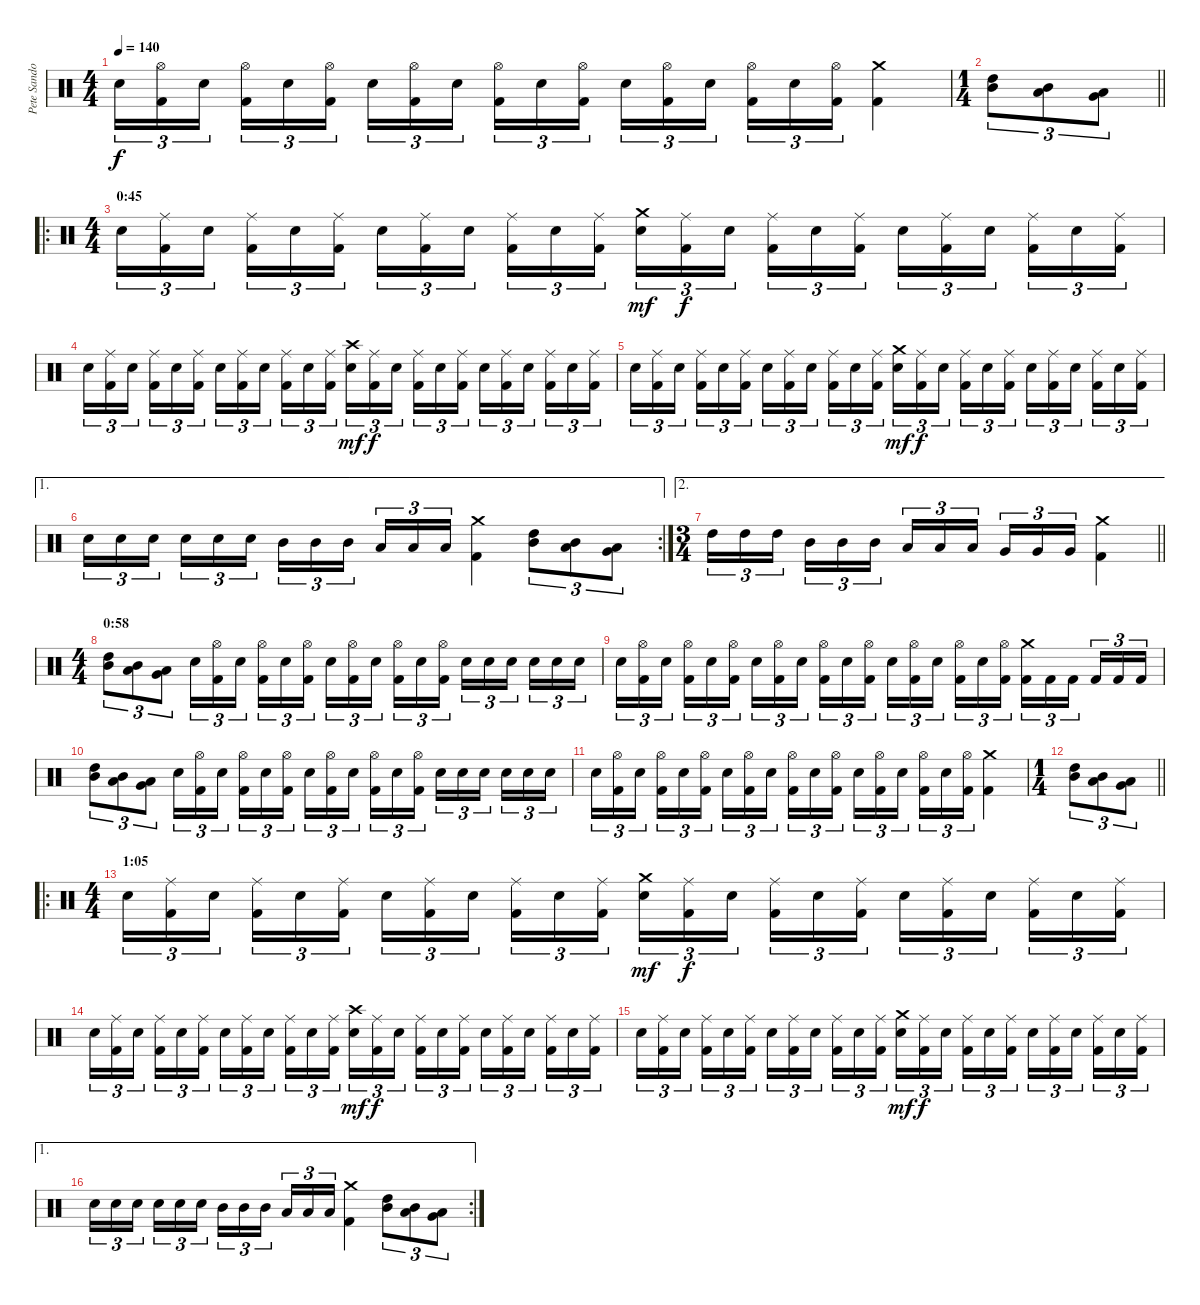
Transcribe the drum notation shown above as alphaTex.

\track ("Pete Sandoval" "Pete Sando") {instrument percussion}
\staff {score}
\articulation defaults
\ts (4 4)
\tempo 140
\clef neutral
\ks c "Electric Snare (hit)".16{tu (3 2) dy f}
("Hi-Hat (open)" "Kick (hit) 2").16{tu (3 2)} "Electric Snare (hit)".16{tu (3 2) beam splitsecondary} ("Hi-Hat (open)" "Kick (hit) 2").16{tu (3 2)} "Electric Snare (hit)".16{tu (3 2)} ("Hi-Hat (open)" "Kick (hit) 2").16{tu (3 2)} "Electric Snare (hit)".16{tu (3 2)} ("Hi-Hat (open)" "Kick (hit) 2").16{tu (3 2)} "Electric Snare (hit)".16{tu (3 2) beam splitsecondary} ("Hi-Hat (open)" "Kick (hit) 2").16{tu (3 2)} "Electric Snare (hit)".16{tu (3 2)} ("Hi-Hat (open)" "Kick (hit) 2").16{tu (3 2)} "Electric Snare (hit)".16{tu (3 2)} ("Hi-Hat (open)" "Kick (hit) 2").16{tu (3 2)} "Electric Snare (hit)".16{tu (3 2) beam splitsecondary} ("Hi-Hat (open)" "Kick (hit) 2").16{tu (3 2)} "Electric Snare (hit)".16{tu (3 2)} ("Hi-Hat (open)" "Kick (hit) 2").16{tu (3 2)} ("Crash medium (hit)" "Kick (hit) 2").4 |
\ts (1 4)
\barLineRight lightlight
("High Tom (hit)" "Mid Tom (hit)").8{tu (3 2)} ("Mid Tom (hit)" "Low Tom (hit)").8{tu (3 2)} ("Low Tom (hit)" "Very Low Tom (hit)").8{tu (3 2)} |
\ro
\ts (4 4)
\section ("" "0:45")
"Electric Snare (hit)".16{tu (3 2)} ("Ride (middle)" "Kick (hit) 2").16{tu (3 2)} "Electric Snare (hit)".16{tu (3 2) beam splitsecondary} ("Ride (middle)" "Kick (hit) 2").16{tu (3 2)} "Electric Snare (hit)".16{tu (3 2)} ("Ride (middle)" "Kick (hit) 2").16{tu (3 2)} "Electric Snare (hit)".16{tu (3 2)} ("Ride (middle)" "Kick (hit) 2").16{tu (3 2)} "Electric Snare (hit)".16{tu (3 2) beam splitsecondary} ("Ride (middle)" "Kick (hit) 2").16{tu (3 2)} "Electric Snare (hit)".16{tu (3 2)} ("Ride (middle)" "Kick (hit) 2").16{tu (3 2)} ("Crash medium (hit)" "Electric Snare (hit)").16{tu (3 2) dy mf} ("Ride (middle)" "Kick (hit) 2").16{tu (3 2) dy f} "Electric Snare (hit)".16{tu (3 2) beam splitsecondary} ("Ride (middle)" "Kick (hit) 2").16{tu (3 2)} "Electric Snare (hit)".16{tu (3 2)} ("Ride (middle)" "Kick (hit) 2").16{tu (3 2)} "Electric Snare (hit)".16{tu (3 2)} ("Ride (middle)" "Kick (hit) 2").16{tu (3 2)} "Electric Snare (hit)".16{tu (3 2) beam splitsecondary} ("Ride (middle)" "Kick (hit) 2").16{tu (3 2)} "Electric Snare (hit)".16{tu (3 2)} ("Ride (middle)" "Kick (hit) 2").16{tu (3 2)} |
"Electric Snare (hit)".16{tu (3 2)} ("Ride (middle)" "Kick (hit) 2").16{tu (3 2)} "Electric Snare (hit)".16{tu (3 2) beam splitsecondary} ("Ride (middle)" "Kick (hit) 2").16{tu (3 2)} "Electric Snare (hit)".16{tu (3 2)} ("Ride (middle)" "Kick (hit) 2").16{tu (3 2)} "Electric Snare (hit)".16{tu (3 2)} ("Ride (middle)" "Kick (hit) 2").16{tu (3 2)} "Electric Snare (hit)".16{tu (3 2) beam splitsecondary} ("Ride (middle)" "Kick (hit) 2").16{tu (3 2)} "Electric Snare (hit)".16{tu (3 2)} ("Ride (middle)" "Kick (hit) 2").16{tu (3 2)} ("Crash high (hit)" "Electric Snare (hit)").16{tu (3 2) dy mf} ("Ride (middle)" "Kick (hit) 2").16{tu (3 2) dy f} "Electric Snare (hit)".16{tu (3 2) beam splitsecondary} ("Ride (middle)" "Kick (hit) 2").16{tu (3 2)} "Electric Snare (hit)".16{tu (3 2)} ("Ride (middle)" "Kick (hit) 2").16{tu (3 2)} "Electric Snare (hit)".16{tu (3 2)} ("Ride (middle)" "Kick (hit) 2").16{tu (3 2)} "Electric Snare (hit)".16{tu (3 2) beam splitsecondary} ("Ride (middle)" "Kick (hit) 2").16{tu (3 2)} "Electric Snare (hit)".16{tu (3 2)} ("Ride (middle)" "Kick (hit) 2").16{tu (3 2)} |
"Electric Snare (hit)".16{tu (3 2)} ("Ride (middle)" "Kick (hit) 2").16{tu (3 2)} "Electric Snare (hit)".16{tu (3 2) beam splitsecondary} ("Ride (middle)" "Kick (hit) 2").16{tu (3 2)} "Electric Snare (hit)".16{tu (3 2)} ("Ride (middle)" "Kick (hit) 2").16{tu (3 2)} "Electric Snare (hit)".16{tu (3 2)} ("Ride (middle)" "Kick (hit) 2").16{tu (3 2)} "Electric Snare (hit)".16{tu (3 2) beam splitsecondary} ("Ride (middle)" "Kick (hit) 2").16{tu (3 2)} "Electric Snare (hit)".16{tu (3 2)} ("Ride (middle)" "Kick (hit) 2").16{tu (3 2)} ("Crash medium (hit)" "Electric Snare (hit)").16{tu (3 2) dy mf} ("Ride (middle)" "Kick (hit) 2").16{tu (3 2) dy f} "Electric Snare (hit)".16{tu (3 2) beam splitsecondary} ("Ride (middle)" "Kick (hit) 2").16{tu (3 2)} "Electric Snare (hit)".16{tu (3 2)} ("Ride (middle)" "Kick (hit) 2").16{tu (3 2)} "Electric Snare (hit)".16{tu (3 2)} ("Ride (middle)" "Kick (hit) 2").16{tu (3 2)} "Electric Snare (hit)".16{tu (3 2) beam splitsecondary} ("Ride (middle)" "Kick (hit) 2").16{tu (3 2)} "Electric Snare (hit)".16{tu (3 2)} ("Ride (middle)" "Kick (hit) 2").16{tu (3 2)} |
\ae 1
\rc 2 "Electric Snare (hit)".16{tu (3 2)} "Electric Snare (hit)".16{tu (3 2)} "Electric Snare (hit)".16{tu (3 2) beam splitsecondary} "Electric Snare (hit)".16{tu (3 2)} "Electric Snare (hit)".16{tu (3 2)} "Electric Snare (hit)".16{tu (3 2)} "Mid Tom (hit)".16{tu (3 2)} "Mid Tom (hit)".16{tu (3 2)} "Mid Tom (hit)".16{tu (3 2) beam splitsecondary} "Low Tom (hit)".16{tu (3 2)} "Low Tom (hit)".16{tu (3 2)} "Low Tom (hit)".16{tu (3 2)}
("Crash medium (hit)" "Kick (hit) 2").4 ("High Tom (hit)" "Mid Tom (hit)").8{tu (3 2)} ("Mid Tom (hit)" "Low Tom (hit)").8{tu (3 2)} ("Low Tom (hit)" "Very Low Tom (hit)").8{tu (3 2)} |
\ae 2
\ts (3 4)
\barLineRight lightlight "High Tom (hit)".16{tu (3 2)} "High Tom (hit)".16{tu (3 2)} "High Tom (hit)".16{tu (3 2) beam splitsecondary} "Mid Tom (hit)".16{tu (3 2)} "Mid Tom (hit)".16{tu (3 2)} "Mid Tom (hit)".16{tu (3 2)} "Low Tom (hit)".16{tu (3 2)} "Low Tom (hit)".16{tu (3 2)} "Low Tom (hit)".16{tu (3 2) beam splitsecondary} "Very Low Tom (hit)".16{tu (3 2)} "Very Low Tom (hit)".16{tu (3 2)} "Very Low Tom (hit)".16{tu (3 2)}
("Crash medium (hit)" "Kick (hit) 2").4 |
\ts (4 4)
\section ("" "0:58")
("High Tom (hit)" "Mid Tom (hit)").8{tu (3 2)} ("Mid Tom (hit)" "Low Tom (hit)").8{tu (3 2)} ("Low Tom (hit)" "Very Low Tom (hit)").8{tu (3 2)} "Electric Snare (hit)".16{tu (3 2)} ("Hi-Hat (open)" "Kick (hit) 2").16{tu (3 2)} "Electric Snare (hit)".16{tu (3 2) beam splitsecondary} ("Hi-Hat (open)" "Kick (hit) 2").16{tu (3 2)} "Electric Snare (hit)".16{tu (3 2)} ("Hi-Hat (open)" "Kick (hit) 2").16{tu (3 2)} "Electric Snare (hit)".16{tu (3 2)} ("Hi-Hat (open)" "Kick (hit) 2").16{tu (3 2)} "Electric Snare (hit)".16{tu (3 2) beam splitsecondary} ("Hi-Hat (open)" "Kick (hit) 2").16{tu (3 2)} "Electric Snare (hit)".16{tu (3 2)} ("Hi-Hat (open)" "Kick (hit) 2").16{tu (3 2)} "Electric Snare (hit)".16{tu (3 2)} "Electric Snare (hit)".16{tu (3 2)} "Electric Snare (hit)".16{tu (3 2) beam splitsecondary} "Electric Snare (hit)".16{tu (3 2)} "Electric Snare (hit)".16{tu (3 2)} "Electric Snare (hit)".16{tu (3 2)} |
"Electric Snare (hit)".16{tu (3 2)} ("Hi-Hat (open)" "Kick (hit) 2").16{tu (3 2)} "Electric Snare (hit)".16{tu (3 2) beam splitsecondary} ("Hi-Hat (open)" "Kick (hit) 2").16{tu (3 2)} "Electric Snare (hit)".16{tu (3 2)} ("Hi-Hat (open)" "Kick (hit) 2").16{tu (3 2)} "Electric Snare (hit)".16{tu (3 2)} ("Hi-Hat (open)" "Kick (hit) 2").16{tu (3 2)} "Electric Snare (hit)".16{tu (3 2) beam splitsecondary} ("Hi-Hat (open)" "Kick (hit) 2").16{tu (3 2)} "Electric Snare (hit)".16{tu (3 2)} ("Hi-Hat (open)" "Kick (hit) 2").16{tu (3 2)} "Electric Snare (hit)".16{tu (3 2)} ("Hi-Hat (open)" "Kick (hit) 2").16{tu (3 2)} "Electric Snare (hit)".16{tu (3 2) beam splitsecondary} ("Hi-Hat (open)" "Kick (hit) 2").16{tu (3 2)} "Electric Snare (hit)".16{tu (3 2)} ("Hi-Hat (open)" "Kick (hit) 2").16{tu (3 2)} ("Crash medium (hit)" "Kick (hit) 2").16{tu (3 2)} "Kick (hit) 2".16{tu (3 2)} "Kick (hit) 2".16{tu (3 2) beam splitsecondary} "Kick (hit) 2".16{tu (3 2)} "Kick (hit) 2".16{tu (3 2)} "Kick (hit) 2".16{tu (3 2)} |
("High Tom (hit)" "Mid Tom (hit)").8{tu (3 2)} ("Mid Tom (hit)" "Low Tom (hit)").8{tu (3 2)} ("Low Tom (hit)" "Very Low Tom (hit)").8{tu (3 2)} "Electric Snare (hit)".16{tu (3 2)} ("Hi-Hat (open)" "Kick (hit) 2").16{tu (3 2)} "Electric Snare (hit)".16{tu (3 2) beam splitsecondary} ("Hi-Hat (open)" "Kick (hit) 2").16{tu (3 2)} "Electric Snare (hit)".16{tu (3 2)} ("Hi-Hat (open)" "Kick (hit) 2").16{tu (3 2)} "Electric Snare (hit)".16{tu (3 2)} ("Hi-Hat (open)" "Kick (hit) 2").16{tu (3 2)} "Electric Snare (hit)".16{tu (3 2) beam splitsecondary} ("Hi-Hat (open)" "Kick (hit) 2").16{tu (3 2)} "Electric Snare (hit)".16{tu (3 2)} ("Hi-Hat (open)" "Kick (hit) 2").16{tu (3 2)} "Electric Snare (hit)".16{tu (3 2)} "Electric Snare (hit)".16{tu (3 2)} "Electric Snare (hit)".16{tu (3 2) beam splitsecondary} "Electric Snare (hit)".16{tu (3 2)} "Electric Snare (hit)".16{tu (3 2)} "Electric Snare (hit)".16{tu (3 2)} |
"Electric Snare (hit)".16{tu (3 2)} ("Hi-Hat (open)" "Kick (hit) 2").16{tu (3 2)} "Electric Snare (hit)".16{tu (3 2) beam splitsecondary} ("Hi-Hat (open)" "Kick (hit) 2").16{tu (3 2)} "Electric Snare (hit)".16{tu (3 2)} ("Hi-Hat (open)" "Kick (hit) 2").16{tu (3 2)} "Electric Snare (hit)".16{tu (3 2)} ("Hi-Hat (open)" "Kick (hit) 2").16{tu (3 2)} "Electric Snare (hit)".16{tu (3 2) beam splitsecondary} ("Hi-Hat (open)" "Kick (hit) 2").16{tu (3 2)} "Electric Snare (hit)".16{tu (3 2)} ("Hi-Hat (open)" "Kick (hit) 2").16{tu (3 2)} "Electric Snare (hit)".16{tu (3 2)} ("Hi-Hat (open)" "Kick (hit) 2").16{tu (3 2)} "Electric Snare (hit)".16{tu (3 2) beam splitsecondary} ("Hi-Hat (open)" "Kick (hit) 2").16{tu (3 2)} "Electric Snare (hit)".16{tu (3 2)} ("Hi-Hat (open)" "Kick (hit) 2").16{tu (3 2)} ("Crash medium (hit)" "Kick (hit) 2").4 |
\ts (1 4)
\barLineRight lightlight
("High Tom (hit)" "Mid Tom (hit)").8{tu (3 2)} ("Mid Tom (hit)" "Low Tom (hit)").8{tu (3 2)} ("Low Tom (hit)" "Very Low Tom (hit)").8{tu (3 2)} |
\ro
\ts (4 4)
\section ("" "1:05")
"Electric Snare (hit)".16{tu (3 2)} ("Ride (middle)" "Kick (hit) 2").16{tu (3 2)} "Electric Snare (hit)".16{tu (3 2) beam splitsecondary} ("Ride (middle)" "Kick (hit) 2").16{tu (3 2)} "Electric Snare (hit)".16{tu (3 2)} ("Ride (middle)" "Kick (hit) 2").16{tu (3 2)} "Electric Snare (hit)".16{tu (3 2)} ("Ride (middle)" "Kick (hit) 2").16{tu (3 2)} "Electric Snare (hit)".16{tu (3 2) beam splitsecondary} ("Ride (middle)" "Kick (hit) 2").16{tu (3 2)} "Electric Snare (hit)".16{tu (3 2)} ("Ride (middle)" "Kick (hit) 2").16{tu (3 2)} ("Crash medium (hit)" "Electric Snare (hit)").16{tu (3 2) dy mf} ("Ride (middle)" "Kick (hit) 2").16{tu (3 2) dy f} "Electric Snare (hit)".16{tu (3 2) beam splitsecondary} ("Ride (middle)" "Kick (hit) 2").16{tu (3 2)} "Electric Snare (hit)".16{tu (3 2)} ("Ride (middle)" "Kick (hit) 2").16{tu (3 2)} "Electric Snare (hit)".16{tu (3 2)} ("Ride (middle)" "Kick (hit) 2").16{tu (3 2)} "Electric Snare (hit)".16{tu (3 2) beam splitsecondary} ("Ride (middle)" "Kick (hit) 2").16{tu (3 2)} "Electric Snare (hit)".16{tu (3 2)} ("Ride (middle)" "Kick (hit) 2").16{tu (3 2)} |
"Electric Snare (hit)".16{tu (3 2)} ("Ride (middle)" "Kick (hit) 2").16{tu (3 2)} "Electric Snare (hit)".16{tu (3 2) beam splitsecondary} ("Ride (middle)" "Kick (hit) 2").16{tu (3 2)} "Electric Snare (hit)".16{tu (3 2)} ("Ride (middle)" "Kick (hit) 2").16{tu (3 2)} "Electric Snare (hit)".16{tu (3 2)} ("Ride (middle)" "Kick (hit) 2").16{tu (3 2)} "Electric Snare (hit)".16{tu (3 2) beam splitsecondary} ("Ride (middle)" "Kick (hit) 2").16{tu (3 2)} "Electric Snare (hit)".16{tu (3 2)} ("Ride (middle)" "Kick (hit) 2").16{tu (3 2)} ("Crash high (hit)" "Electric Snare (hit)").16{tu (3 2) dy mf} ("Ride (middle)" "Kick (hit) 2").16{tu (3 2) dy f} "Electric Snare (hit)".16{tu (3 2) beam splitsecondary} ("Ride (middle)" "Kick (hit) 2").16{tu (3 2)} "Electric Snare (hit)".16{tu (3 2)} ("Ride (middle)" "Kick (hit) 2").16{tu (3 2)} "Electric Snare (hit)".16{tu (3 2)} ("Ride (middle)" "Kick (hit) 2").16{tu (3 2)} "Electric Snare (hit)".16{tu (3 2) beam splitsecondary} ("Ride (middle)" "Kick (hit) 2").16{tu (3 2)} "Electric Snare (hit)".16{tu (3 2)} ("Ride (middle)" "Kick (hit) 2").16{tu (3 2)} |
"Electric Snare (hit)".16{tu (3 2)} ("Ride (middle)" "Kick (hit) 2").16{tu (3 2)} "Electric Snare (hit)".16{tu (3 2) beam splitsecondary} ("Ride (middle)" "Kick (hit) 2").16{tu (3 2)} "Electric Snare (hit)".16{tu (3 2)} ("Ride (middle)" "Kick (hit) 2").16{tu (3 2)} "Electric Snare (hit)".16{tu (3 2)} ("Ride (middle)" "Kick (hit) 2").16{tu (3 2)} "Electric Snare (hit)".16{tu (3 2) beam splitsecondary} ("Ride (middle)" "Kick (hit) 2").16{tu (3 2)} "Electric Snare (hit)".16{tu (3 2)} ("Ride (middle)" "Kick (hit) 2").16{tu (3 2)} ("Crash medium (hit)" "Electric Snare (hit)").16{tu (3 2) dy mf} ("Ride (middle)" "Kick (hit) 2").16{tu (3 2) dy f} "Electric Snare (hit)".16{tu (3 2) beam splitsecondary} ("Ride (middle)" "Kick (hit) 2").16{tu (3 2)} "Electric Snare (hit)".16{tu (3 2)} ("Ride (middle)" "Kick (hit) 2").16{tu (3 2)} "Electric Snare (hit)".16{tu (3 2)} ("Ride (middle)" "Kick (hit) 2").16{tu (3 2)} "Electric Snare (hit)".16{tu (3 2) beam splitsecondary} ("Ride (middle)" "Kick (hit) 2").16{tu (3 2)} "Electric Snare (hit)".16{tu (3 2)} ("Ride (middle)" "Kick (hit) 2").16{tu (3 2)} |
\ae 1
\rc 2 "Electric Snare (hit)".16{tu (3 2)} "Electric Snare (hit)".16{tu (3 2)} "Electric Snare (hit)".16{tu (3 2) beam splitsecondary} "Electric Snare (hit)".16{tu (3 2)} "Electric Snare (hit)".16{tu (3 2)} "Electric Snare (hit)".16{tu (3 2)} "Mid Tom (hit)".16{tu (3 2)} "Mid Tom (hit)".16{tu (3 2)} "Mid Tom (hit)".16{tu (3 2) beam splitsecondary} "Low Tom (hit)".16{tu (3 2)} "Low Tom (hit)".16{tu (3 2)} "Low Tom (hit)".16{tu (3 2)}
("Crash medium (hit)" "Kick (hit) 2").4 ("High Tom (hit)" "Mid Tom (hit)").8{tu (3 2)} ("Mid Tom (hit)" "Low Tom (hit)").8{tu (3 2)} ("Low Tom (hit)" "Very Low Tom (hit)").8{tu (3 2)}
